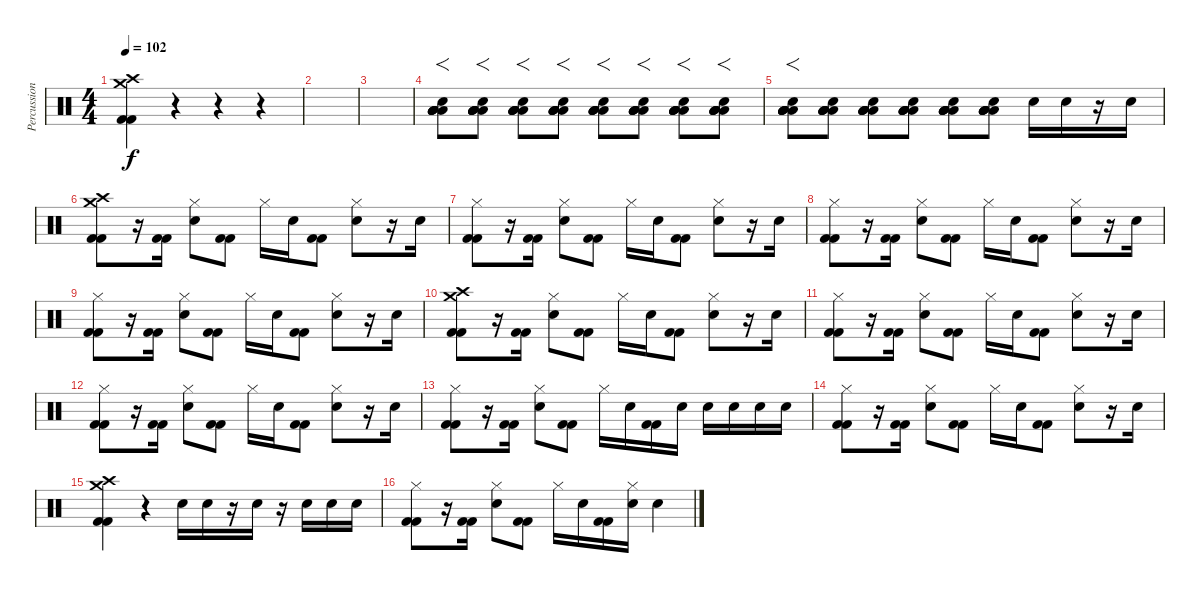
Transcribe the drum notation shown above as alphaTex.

\track ("Percussions" "Percussion") {instrument percussion}
\staff {score}
\articulation defaults
\ts (4 4)
\tempo 102
\clef neutral
\ks c
("Crash high (hit)" "Crash medium (hit)" "Kick (hit) 2" "Kick (hit) 2").4{dy f} r.4 r.4 r.4 |
|
|
("Low Tom (hit)" "Low Tom (hit)" "Low Tom (hit)" "Electric Snare (hit)" "Low Tom (hit)" "Low Tom (hit)").8{f} ("Low Tom (hit)" "Low Tom (hit)" "Low Tom (hit)" "Electric Snare (hit)" "Low Tom (hit)" "Low Tom (hit)").8{f} ("Low Tom (hit)" "Low Tom (hit)" "Low Tom (hit)" "Electric Snare (hit)" "Low Tom (hit)" "Low Tom (hit)").8{f} ("Low Tom (hit)" "Low Tom (hit)" "Low Tom (hit)" "Electric Snare (hit)" "Low Tom (hit)" "Low Tom (hit)").8{f} ("Low Tom (hit)" "Low Tom (hit)" "Low Tom (hit)" "Electric Snare (hit)" "Low Tom (hit)" "Low Tom (hit)").8{f} ("Low Tom (hit)" "Low Tom (hit)" "Low Tom (hit)" "Electric Snare (hit)" "Low Tom (hit)" "Low Tom (hit)").8{f} ("Low Tom (hit)" "Low Tom (hit)" "Low Tom (hit)" "Electric Snare (hit)" "Low Tom (hit)" "Low Tom (hit)").8{f} ("Low Tom (hit)" "Low Tom (hit)" "Low Tom (hit)" "Electric Snare (hit)" "Low Tom (hit)" "Low Tom (hit)").8{f} |
("Low Tom (hit)" "Low Tom (hit)" "Low Tom (hit)" "Electric Snare (hit)" "Low Tom (hit)" "Low Tom (hit)").8{f} ("Low Tom (hit)" "Low Tom (hit)" "Low Tom (hit)" "Electric Snare (hit)" "Low Tom (hit)" "Low Tom (hit)").8 ("Low Tom (hit)" "Low Tom (hit)" "Low Tom (hit)" "Electric Snare (hit)" "Low Tom (hit)" "Low Tom (hit)").8 ("Low Tom (hit)" "Low Tom (hit)" "Low Tom (hit)" "Electric Snare (hit)" "Low Tom (hit)" "Low Tom (hit)").8 ("Low Tom (hit)" "Low Tom (hit)" "Low Tom (hit)" "Electric Snare (hit)" "Low Tom (hit)" "Low Tom (hit)").8 ("Low Tom (hit)" "Low Tom (hit)" "Low Tom (hit)" "Electric Snare (hit)" "Low Tom (hit)" "Low Tom (hit)").8 "Electric Snare (hit)".16 "Electric Snare (hit)".16 r.16 "Electric Snare (hit)".16 |
("Crash high (hit)" "Crash medium (hit)" "Kick (hit) 2" "Kick (hit) 2").8 r.16 ("Kick (hit) 2" "Kick (hit) 2").16 ("Hi-Hat (closed)" "Electric Snare (hit)").8 ("Kick (hit) 2" "Kick (hit) 2").8 "Hi-Hat (closed)".16 "Electric Snare (hit)".16 ("Kick (hit) 2" "Kick (hit) 2").8 ("Hi-Hat (closed)" "Electric Snare (hit)").8 r.16 "Electric Snare (hit)".16 |
("Hi-Hat (closed)" "Kick (hit) 2" "Kick (hit) 2").8 r.16 ("Kick (hit) 2" "Kick (hit) 2").16 ("Hi-Hat (closed)" "Electric Snare (hit)").8 ("Kick (hit) 2" "Kick (hit) 2").8 "Hi-Hat (closed)".16 "Electric Snare (hit)".16 ("Kick (hit) 2" "Kick (hit) 2").8 ("Hi-Hat (closed)" "Electric Snare (hit)").8 r.16 "Electric Snare (hit)".16 |
("Hi-Hat (closed)" "Kick (hit) 2" "Kick (hit) 2").8 r.16 ("Kick (hit) 2" "Kick (hit) 2").16 ("Hi-Hat (closed)" "Electric Snare (hit)").8 ("Kick (hit) 2" "Kick (hit) 2").8 "Hi-Hat (closed)".16 "Electric Snare (hit)".16 ("Kick (hit) 2" "Kick (hit) 2").8 ("Hi-Hat (closed)" "Electric Snare (hit)").8 r.16 "Electric Snare (hit)".16 |
("Hi-Hat (closed)" "Kick (hit) 2" "Kick (hit) 2").8 r.16 ("Kick (hit) 2" "Kick (hit) 2").16 ("Hi-Hat (closed)" "Electric Snare (hit)").8 ("Kick (hit) 2" "Kick (hit) 2").8 "Hi-Hat (closed)".16 "Electric Snare (hit)".16 ("Kick (hit) 2" "Kick (hit) 2").8 ("Hi-Hat (closed)" "Electric Snare (hit)").8 r.16 "Electric Snare (hit)".16 |
("Crash high (hit)" "Crash medium (hit)" "Kick (hit) 2" "Kick (hit) 2").8 r.16 ("Kick (hit) 2" "Kick (hit) 2").16 ("Hi-Hat (closed)" "Electric Snare (hit)").8 ("Kick (hit) 2" "Kick (hit) 2").8 "Hi-Hat (closed)".16 "Electric Snare (hit)".16 ("Kick (hit) 2" "Kick (hit) 2").8 ("Hi-Hat (closed)" "Electric Snare (hit)").8 r.16 "Electric Snare (hit)".16 |
("Hi-Hat (closed)" "Kick (hit) 2" "Kick (hit) 2").8 r.16 ("Kick (hit) 2" "Kick (hit) 2").16 ("Hi-Hat (closed)" "Electric Snare (hit)").8 ("Kick (hit) 2" "Kick (hit) 2").8 "Hi-Hat (closed)".16 "Electric Snare (hit)".16 ("Kick (hit) 2" "Kick (hit) 2").8 ("Hi-Hat (closed)" "Electric Snare (hit)").8 r.16 "Electric Snare (hit)".16 |
("Hi-Hat (closed)" "Kick (hit) 2" "Kick (hit) 2").8 r.16 ("Kick (hit) 2" "Kick (hit) 2").16 ("Hi-Hat (closed)" "Electric Snare (hit)").8 ("Kick (hit) 2" "Kick (hit) 2").8 "Hi-Hat (closed)".16 "Electric Snare (hit)".16 ("Kick (hit) 2" "Kick (hit) 2").8 ("Hi-Hat (closed)" "Electric Snare (hit)").8 r.16 "Electric Snare (hit)".16 |
("Hi-Hat (closed)" "Kick (hit) 2" "Kick (hit) 2").8 r.16 ("Kick (hit) 2" "Kick (hit) 2").16 ("Hi-Hat (closed)" "Electric Snare (hit)").8 ("Kick (hit) 2" "Kick (hit) 2").8 "Hi-Hat (closed)".16 "Electric Snare (hit)".16 ("Kick (hit) 2" "Kick (hit) 2").16 "Electric Snare (hit)".16 "Electric Snare (hit)".16 "Electric Snare (hit)".16 "Electric Snare (hit)".16 "Electric Snare (hit)".16 |
("Hi-Hat (closed)" "Kick (hit) 2" "Kick (hit) 2").8 r.16 ("Kick (hit) 2" "Kick (hit) 2").16 ("Hi-Hat (closed)" "Electric Snare (hit)").8 ("Kick (hit) 2" "Kick (hit) 2").8 "Hi-Hat (closed)".16 "Electric Snare (hit)".16 ("Kick (hit) 2" "Kick (hit) 2").8 ("Hi-Hat (closed)" "Electric Snare (hit)").8 r.16 "Electric Snare (hit)".16 |
("Crash high (hit)" "Crash medium (hit)" "Kick (hit) 2" "Kick (hit) 2").4 r.4 "Electric Snare (hit)".16 "Electric Snare (hit)".16 r.16 "Electric Snare (hit)".16 r.16 "Electric Snare (hit)".16 "Electric Snare (hit)".16 "Electric Snare (hit)".16 |
("Hi-Hat (closed)" "Kick (hit) 2" "Kick (hit) 2").8 r.16 ("Kick (hit) 2" "Kick (hit) 2").16 ("Hi-Hat (closed)" "Electric Snare (hit)").8 ("Kick (hit) 2" "Kick (hit) 2").8 "Hi-Hat (closed)".16 "Electric Snare (hit)".16 ("Kick (hit) 2" "Kick (hit) 2").16 ("Hi-Hat (closed)" "Electric Snare (hit)").16 "Electric Snare (hit)".4
